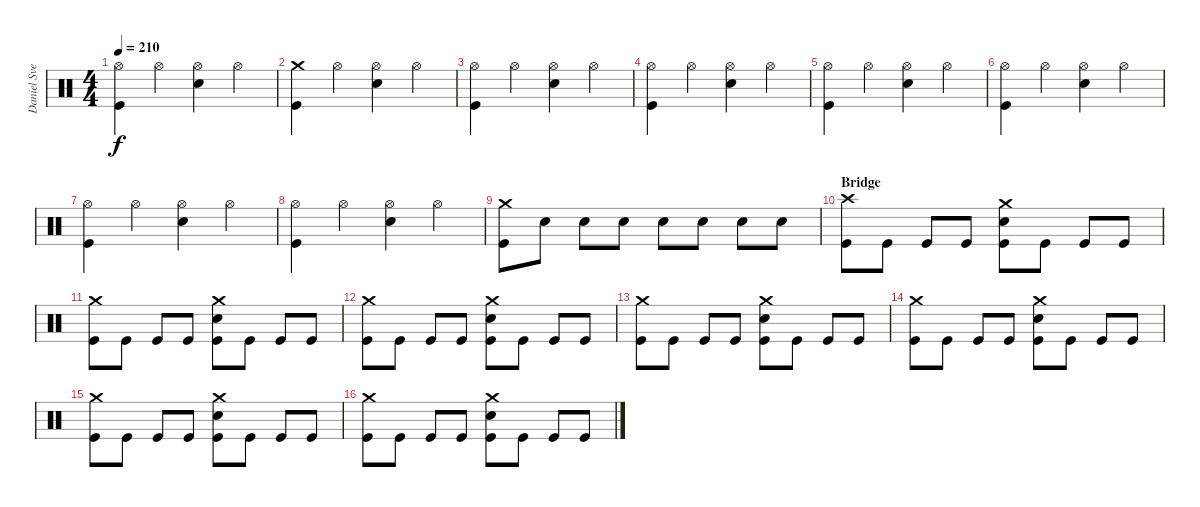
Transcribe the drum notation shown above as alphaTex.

\track ("Daniel Svensson" "Daniel Sve") {instrument percussion}
\staff {score}
\articulation defaults
\ts (4 4)
\tempo 210
\clef neutral
\ks c
("Hi-Hat (open)" "Kick (hit)").4{dy f} "Hi-Hat (open)".4 ("Hi-Hat (open)" "Electric Snare (hit)").4 "Hi-Hat (open)".4 |
("Crash medium (hit)" "Kick (hit)").4 "Hi-Hat (open)".4 ("Hi-Hat (open)" "Electric Snare (hit)").4 "Hi-Hat (open)".4 |
("Hi-Hat (open)" "Kick (hit)").4 "Hi-Hat (open)".4 ("Hi-Hat (open)" "Electric Snare (hit)").4 "Hi-Hat (open)".4 |
("Hi-Hat (open)" "Kick (hit)").4 "Hi-Hat (open)".4 ("Hi-Hat (open)" "Electric Snare (hit)").4 "Hi-Hat (open)".4 |
("Hi-Hat (open)" "Kick (hit)").4 "Hi-Hat (open)".4 ("Hi-Hat (open)" "Electric Snare (hit)").4 "Hi-Hat (open)".4 |
("Hi-Hat (open)" "Kick (hit)").4 "Hi-Hat (open)".4 ("Hi-Hat (open)" "Electric Snare (hit)").4 "Hi-Hat (open)".4 |
("Hi-Hat (open)" "Kick (hit)").4 "Hi-Hat (open)".4 ("Hi-Hat (open)" "Electric Snare (hit)").4 "Hi-Hat (open)".4 |
("Hi-Hat (open)" "Kick (hit)").4 "Hi-Hat (open)".4 ("Hi-Hat (open)" "Electric Snare (hit)").4 "Hi-Hat (open)".4 |
("Crash medium (hit)" "Kick (hit)").8 "Electric Snare (hit)".8 "Electric Snare (hit)".8 "Electric Snare (hit)".8 "Electric Snare (hit)".8 "Electric Snare (hit)".8 "Electric Snare (hit)".8 "Electric Snare (hit)".8 |
\section ("" "Bridge")
("Crash high (hit)" "Kick (hit)").8 "Kick (hit)".8 "Kick (hit)".8 "Kick (hit)".8 ("Crash medium (hit)" "Electric Snare (hit)" "Kick (hit)").8 "Kick (hit)".8 "Kick (hit)".8 "Kick (hit)".8 |
("Crash medium (hit)" "Kick (hit)").8 "Kick (hit)".8 "Kick (hit)".8 "Kick (hit)".8 ("Crash medium (hit)" "Electric Snare (hit)" "Kick (hit)").8 "Kick (hit)".8 "Kick (hit)".8 "Kick (hit)".8 |
("Crash medium (hit)" "Kick (hit)").8 "Kick (hit)".8 "Kick (hit)".8 "Kick (hit)".8 ("Crash medium (hit)" "Electric Snare (hit)" "Kick (hit)").8 "Kick (hit)".8 "Kick (hit)".8 "Kick (hit)".8 |
("Crash medium (hit)" "Kick (hit)").8 "Kick (hit)".8 "Kick (hit)".8 "Kick (hit)".8 ("Crash medium (hit)" "Electric Snare (hit)" "Kick (hit)").8 "Kick (hit)".8 "Kick (hit)".8 "Kick (hit)".8 |
("Crash medium (hit)" "Kick (hit)").8 "Kick (hit)".8 "Kick (hit)".8 "Kick (hit)".8 ("Crash medium (hit)" "Electric Snare (hit)" "Kick (hit)").8 "Kick (hit)".8 "Kick (hit)".8 "Kick (hit)".8 |
("Crash medium (hit)" "Kick (hit)").8 "Kick (hit)".8 "Kick (hit)".8 "Kick (hit)".8 ("Crash medium (hit)" "Electric Snare (hit)" "Kick (hit)").8 "Kick (hit)".8 "Kick (hit)".8 "Kick (hit)".8 |
("Crash medium (hit)" "Kick (hit)").8 "Kick (hit)".8 "Kick (hit)".8 "Kick (hit)".8 ("Crash medium (hit)" "Electric Snare (hit)" "Kick (hit)").8 "Kick (hit)".8 "Kick (hit)".8 "Kick (hit)".8
